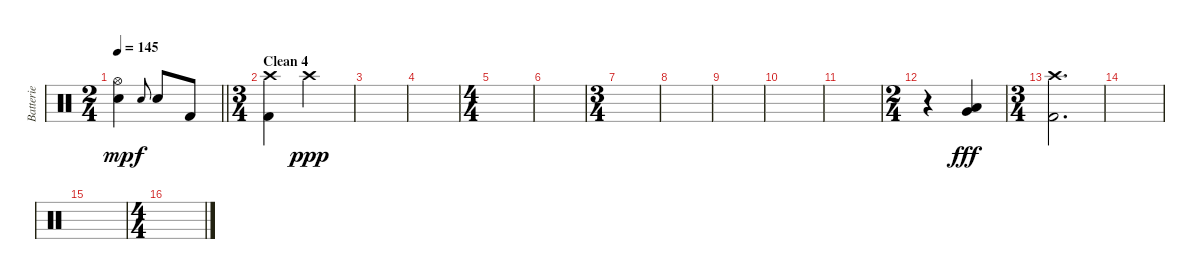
\track ("Batterie" "Batterie") {instrument percussion}
\staff {score}
\articulation defaults
\ts (2 4)
\tempo 145
\clef neutral
\barLineRight lightlight
\ks c
("Hi-Hat (open)" "Electric Snare (hit)").4{dy mp} "Electric Snare (hit)".8{gr onbeat dy f} "Electric Snare (hit)".8 "Kick (hit) 2".8 |
\ts (3 4)
\section ("" "Clean 4")
("Crash high (hit)" "Kick (hit) 2").4 "Crash high (hit)".2{dy ppp} |
|
|
\ts (4 4)
|
|
\ts (3 4)
|
|
|
|
|
\ts (2 4)
r.4 ("Low Floor Tom (hit)" "Very Low Tom (hit)").4{dy fff} |
\ts (3 4)
("Crash high (hit)" "Kick (hit) 2").2{d} |
|
|
\ts (4 4)
